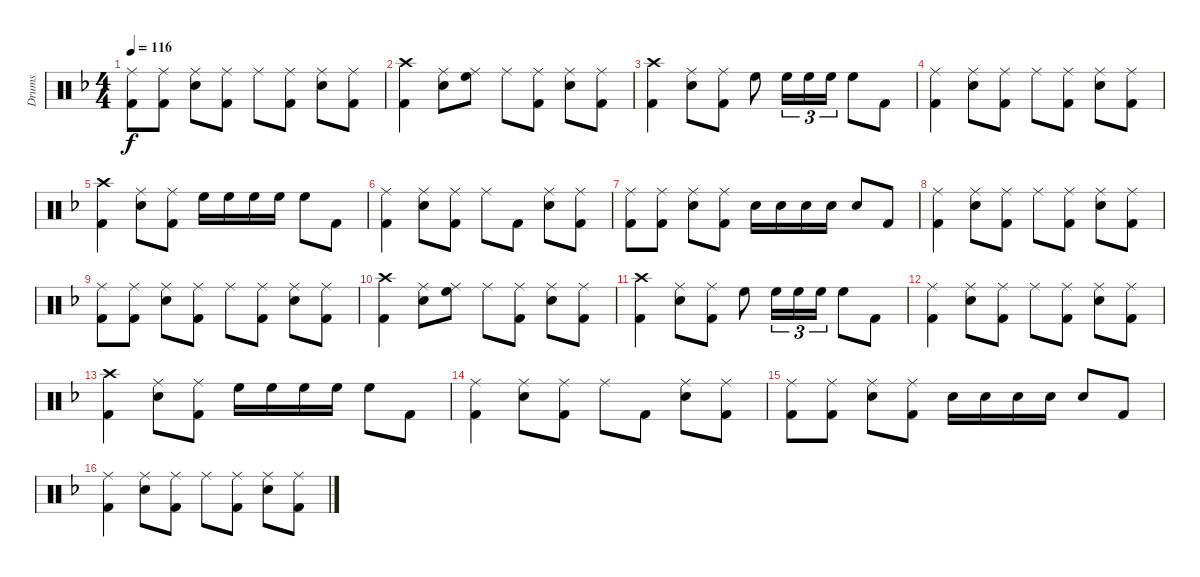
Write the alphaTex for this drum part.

\track ("Drums" "Drums") {instrument percussion}
\staff {score}
\articulation defaults
\ts (4 4)
\tempo 116
\clef neutral
\ks dminor
("Ride (middle)" "Kick (hit) 2").8{dy f} ("Ride (middle)" "Kick (hit) 2").8 ("Ride (middle)" "Electric Snare (hit)").8 ("Ride (middle)" "Kick (hit) 2").8 "Ride (middle)".8 ("Ride (middle)" "Kick (hit) 2").8 ("Ride (middle)" "Electric Snare (hit)").8 ("Ride (middle)" "Kick (hit) 2").8 |
("Crash high (hit)" "Kick (hit) 2").4 ("Ride (middle)" "Electric Snare (hit)").8 ("Ride (middle)" "High Floor Tom (hit)").8 "Ride (middle)".8 ("Ride (middle)" "Kick (hit) 2").8 ("Ride (middle)" "Electric Snare (hit)").8 ("Ride (middle)" "Kick (hit) 2").8 |
("Crash high (hit)" "Kick (hit) 2").4 ("Ride (middle)" "Electric Snare (hit)").8 ("Ride (middle)" "Kick (hit) 2").8 "High Floor Tom (hit)".8 "High Floor Tom (hit)".16{tu (3 2)} "High Floor Tom (hit)".16{tu (3 2)} "High Floor Tom (hit)".16{tu (3 2)} "High Floor Tom (hit)".8 "Kick (hit) 2".8 |
("Ride (middle)" "Kick (hit) 2").4 ("Ride (middle)" "Electric Snare (hit)").8 ("Ride (middle)" "Kick (hit) 2").8 "Ride (middle)".8 ("Ride (middle)" "Kick (hit) 2").8 ("Ride (middle)" "Electric Snare (hit)").8 ("Ride (middle)" "Kick (hit) 2").8 |
("Crash high (hit)" "Kick (hit) 2").4 ("Ride (middle)" "Electric Snare (hit)").8 ("Ride (middle)" "Kick (hit) 2").8 "High Floor Tom (hit)".16 "High Floor Tom (hit)".16 "High Floor Tom (hit)".16 "High Floor Tom (hit)".16 "High Floor Tom (hit)".8 "Kick (hit) 2".8 |
("Ride (middle)" "Kick (hit) 2").4 ("Ride (middle)" "Electric Snare (hit)").8 ("Ride (middle)" "Kick (hit) 2").8 "Ride (middle)".8 "Kick (hit) 2".8 ("Ride (middle)" "Electric Snare (hit)").8 ("Ride (middle)" "Kick (hit) 2").8 |
("Ride (middle)" "Kick (hit) 2").8 ("Ride (middle)" "Kick (hit) 2").8 ("Ride (middle)" "Electric Snare (hit)").8 ("Ride (middle)" "Kick (hit) 2").8 "Electric Snare (hit)".16 "Electric Snare (hit)".16 "Electric Snare (hit)".16 "Electric Snare (hit)".16 "Electric Snare (hit)".8 "Kick (hit) 2".8 |
("Ride (middle)" "Kick (hit) 2").4 ("Ride (middle)" "Electric Snare (hit)").8 ("Ride (middle)" "Kick (hit) 2").8 "Ride (middle)".8 ("Ride (middle)" "Kick (hit) 2").8 ("Ride (middle)" "Electric Snare (hit)").8 ("Ride (middle)" "Kick (hit) 2").8 |
("Ride (middle)" "Kick (hit) 2").8 ("Ride (middle)" "Kick (hit) 2").8 ("Ride (middle)" "Electric Snare (hit)").8 ("Ride (middle)" "Kick (hit) 2").8 "Ride (middle)".8 ("Ride (middle)" "Kick (hit) 2").8 ("Ride (middle)" "Electric Snare (hit)").8 ("Ride (middle)" "Kick (hit) 2").8 |
("Crash high (hit)" "Kick (hit) 2").4 ("Ride (middle)" "Electric Snare (hit)").8 ("Ride (middle)" "High Floor Tom (hit)").8 "Ride (middle)".8 ("Ride (middle)" "Kick (hit) 2").8 ("Ride (middle)" "Electric Snare (hit)").8 ("Ride (middle)" "Kick (hit) 2").8 |
("Crash high (hit)" "Kick (hit) 2").4 ("Ride (middle)" "Electric Snare (hit)").8 ("Ride (middle)" "Kick (hit) 2").8 "High Floor Tom (hit)".8 "High Floor Tom (hit)".16{tu (3 2)} "High Floor Tom (hit)".16{tu (3 2)} "High Floor Tom (hit)".16{tu (3 2)} "High Floor Tom (hit)".8 "Kick (hit) 2".8 |
("Ride (middle)" "Kick (hit) 2").4 ("Ride (middle)" "Electric Snare (hit)").8 ("Ride (middle)" "Kick (hit) 2").8 "Ride (middle)".8 ("Ride (middle)" "Kick (hit) 2").8 ("Ride (middle)" "Electric Snare (hit)").8 ("Ride (middle)" "Kick (hit) 2").8 |
("Crash high (hit)" "Kick (hit) 2").4 ("Ride (middle)" "Electric Snare (hit)").8 ("Ride (middle)" "Kick (hit) 2").8 "High Floor Tom (hit)".16 "High Floor Tom (hit)".16 "High Floor Tom (hit)".16 "High Floor Tom (hit)".16 "High Floor Tom (hit)".8 "Kick (hit) 2".8 |
("Ride (middle)" "Kick (hit) 2").4 ("Ride (middle)" "Electric Snare (hit)").8 ("Ride (middle)" "Kick (hit) 2").8 "Ride (middle)".8 "Kick (hit) 2".8 ("Ride (middle)" "Electric Snare (hit)").8 ("Ride (middle)" "Kick (hit) 2").8 |
("Ride (middle)" "Kick (hit) 2").8 ("Ride (middle)" "Kick (hit) 2").8 ("Ride (middle)" "Electric Snare (hit)").8 ("Ride (middle)" "Kick (hit) 2").8 "Electric Snare (hit)".16 "Electric Snare (hit)".16 "Electric Snare (hit)".16 "Electric Snare (hit)".16 "Electric Snare (hit)".8 "Kick (hit) 2".8 |
("Ride (middle)" "Kick (hit) 2").4 ("Ride (middle)" "Electric Snare (hit)").8 ("Ride (middle)" "Kick (hit) 2").8 "Ride (middle)".8 ("Ride (middle)" "Kick (hit) 2").8 ("Ride (middle)" "Electric Snare (hit)").8 ("Ride (middle)" "Kick (hit) 2").8
